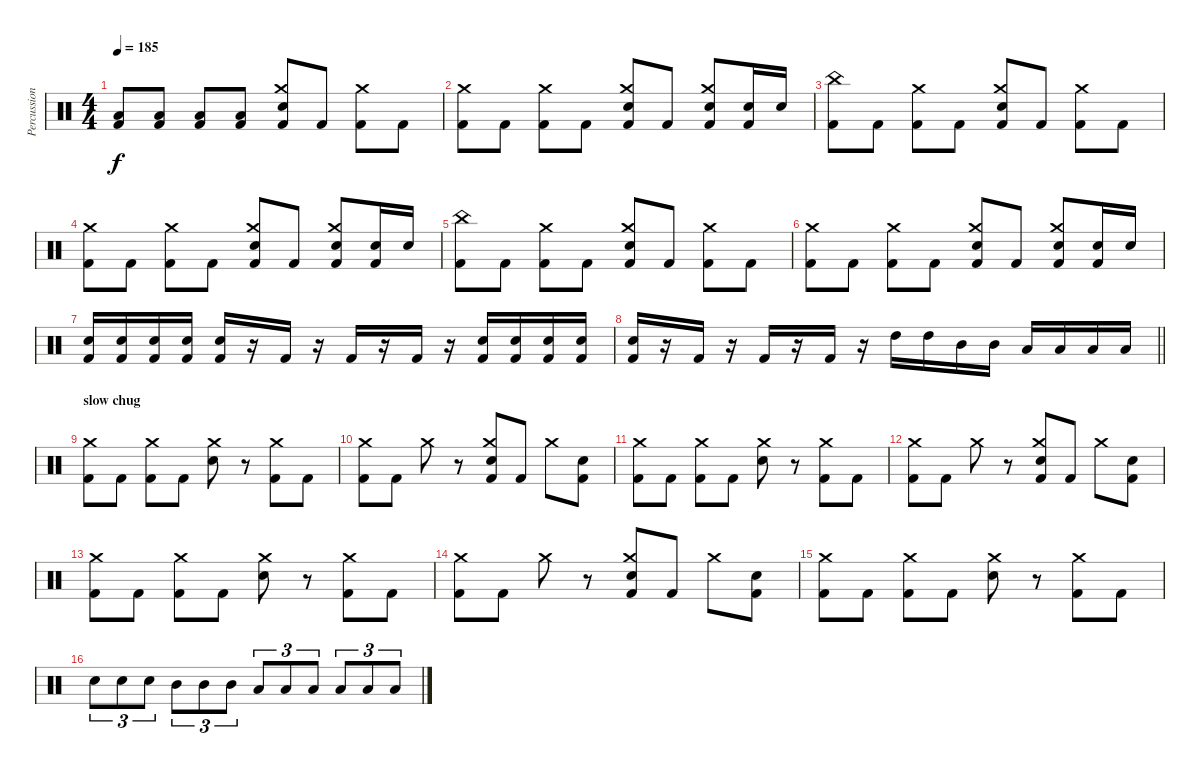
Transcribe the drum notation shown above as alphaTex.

\track ("Percussion" "Percussion") {instrument percussion}
\staff {score}
\articulation defaults
\ts (4 4)
\tempo 185
\clef neutral
\ks c
("Low Tom (hit)" "Kick (hit) 2").8{dy f} ("Low Tom (hit)" "Kick (hit) 2").8 ("Low Floor Tom (hit)" "Kick (hit) 2").8 ("Low Floor Tom (hit)" "Kick (hit) 2").8 ("Crash medium (hit)" "Electric Snare (hit)" "Kick (hit) 2").8 "Kick (hit) 2".8 ("Crash medium (hit)" "Kick (hit) 2").8 "Kick (hit) 2".8 |
("Crash medium (hit)" "Kick (hit) 2").8 "Kick (hit) 2".8 ("Crash medium (hit)" "Kick (hit) 2").8 "Kick (hit) 2".8 ("Crash medium (hit)" "Electric Snare (hit)" "Kick (hit) 2").8 "Kick (hit) 2".8 ("Crash medium (hit)" "Electric Snare (hit)" "Kick (hit) 2").8 ("Electric Snare (hit)" "Kick (hit) 2").16 "Electric Snare (hit)".16 |
("China (hit)" "Kick (hit) 2").8 "Kick (hit) 2".8 ("Crash medium (hit)" "Kick (hit) 2").8 "Kick (hit) 2".8 ("Crash medium (hit)" "Electric Snare (hit)" "Kick (hit) 2").8 "Kick (hit) 2".8 ("Crash medium (hit)" "Kick (hit) 2").8 "Kick (hit) 2".8 |
("Crash medium (hit)" "Kick (hit) 2").8 "Kick (hit) 2".8 ("Crash medium (hit)" "Kick (hit) 2").8 "Kick (hit) 2".8 ("Crash medium (hit)" "Electric Snare (hit)" "Kick (hit) 2").8 "Kick (hit) 2".8 ("Crash medium (hit)" "Electric Snare (hit)" "Kick (hit) 2").8 ("Electric Snare (hit)" "Kick (hit) 2").16 "Electric Snare (hit)".16 |
("China (hit)" "Kick (hit) 2").8 "Kick (hit) 2".8 ("Crash medium (hit)" "Kick (hit) 2").8 "Kick (hit) 2".8 ("Crash medium (hit)" "Electric Snare (hit)" "Kick (hit) 2").8 "Kick (hit) 2".8 ("Crash medium (hit)" "Kick (hit) 2").8 "Kick (hit) 2".8 |
("Crash medium (hit)" "Kick (hit) 2").8 "Kick (hit) 2".8 ("Crash medium (hit)" "Kick (hit) 2").8 "Kick (hit) 2".8 ("Crash medium (hit)" "Electric Snare (hit)" "Kick (hit) 2").8 "Kick (hit) 2".8 ("Crash medium (hit)" "Electric Snare (hit)" "Kick (hit) 2").8 ("Electric Snare (hit)" "Kick (hit) 2").16 "Electric Snare (hit)".16 |
("Electric Snare (hit)" "Kick (hit) 2").16 ("Electric Snare (hit)" "Kick (hit) 2").16 ("Electric Snare (hit)" "Kick (hit) 2").16 ("Electric Snare (hit)" "Kick (hit) 2").16 ("Electric Snare (hit)" "Kick (hit) 2").16 r.16 "Kick (hit) 2".16 r.16 "Kick (hit) 2".16 r.16 "Kick (hit) 2".16 r.16 ("Electric Snare (hit)" "Kick (hit) 2").16 ("Electric Snare (hit)" "Kick (hit) 2").16 ("Electric Snare (hit)" "Kick (hit) 2").16 ("Electric Snare (hit)" "Kick (hit) 2").16 |
\barLineRight lightlight
("Electric Snare (hit)" "Kick (hit) 2").16 r.16 "Kick (hit) 2".16 r.16 "Kick (hit) 2".16 r.16 "Kick (hit) 2".16 r.16 "High Tom (hit)".16 "High Tom (hit)".16 "Mid Tom (hit)".16 "Mid Tom (hit)".16 "Low Tom (hit)".16 "Low Tom (hit)".16 "Low Floor Tom (hit)".16 "Low Floor Tom (hit)".16 |
\section ("" "slow chug")
("Crash medium (hit)" "Kick (hit) 2").8 "Kick (hit) 2".8 ("Crash medium (hit)" "Kick (hit) 2").8 "Kick (hit) 2".8 ("Crash medium (hit)" "Electric Snare (hit)").8 r.8 ("Crash medium (hit)" "Kick (hit) 2").8 "Kick (hit) 2".8 |
("Crash medium (hit)" "Kick (hit) 2").8 "Kick (hit) 2".8 "Crash medium (hit)".8 r.8 ("Crash medium (hit)" "Electric Snare (hit)" "Kick (hit) 2").8 "Kick (hit) 2".8 "Crash medium (hit)".8 ("Electric Snare (hit)" "Kick (hit) 2").8 |
("Crash medium (hit)" "Kick (hit) 2").8 "Kick (hit) 2".8 ("Crash medium (hit)" "Kick (hit) 2").8 "Kick (hit) 2".8 ("Crash medium (hit)" "Electric Snare (hit)").8 r.8 ("Crash medium (hit)" "Kick (hit) 2").8 "Kick (hit) 2".8 |
("Crash medium (hit)" "Kick (hit) 2").8 "Kick (hit) 2".8 "Crash medium (hit)".8 r.8 ("Crash medium (hit)" "Electric Snare (hit)" "Kick (hit) 2").8 "Kick (hit) 2".8 "Crash medium (hit)".8 ("Electric Snare (hit)" "Kick (hit) 2").8 |
("Crash medium (hit)" "Kick (hit) 2").8 "Kick (hit) 2".8 ("Crash medium (hit)" "Kick (hit) 2").8 "Kick (hit) 2".8 ("Crash medium (hit)" "Electric Snare (hit)").8 r.8 ("Crash medium (hit)" "Kick (hit) 2").8 "Kick (hit) 2".8 |
("Crash medium (hit)" "Kick (hit) 2").8 "Kick (hit) 2".8 "Crash medium (hit)".8 r.8 ("Crash medium (hit)" "Electric Snare (hit)" "Kick (hit) 2").8 "Kick (hit) 2".8 "Crash medium (hit)".8 ("Electric Snare (hit)" "Kick (hit) 2").8 |
("Crash medium (hit)" "Kick (hit) 2").8 "Kick (hit) 2".8 ("Crash medium (hit)" "Kick (hit) 2").8 "Kick (hit) 2".8 ("Crash medium (hit)" "Electric Snare (hit)").8 r.8 ("Crash medium (hit)" "Kick (hit) 2").8 "Kick (hit) 2".8 |
"Electric Snare (hit)".8{tu (3 2)} "Electric Snare (hit)".8{tu (3 2)} "Electric Snare (hit)".8{tu (3 2)} "Mid Tom (hit)".8{tu (3 2)} "Mid Tom (hit)".8{tu (3 2)} "Mid Tom (hit)".8{tu (3 2)} "Low Tom (hit)".8{tu (3 2)} "Low Tom (hit)".8{tu (3 2)} "Low Tom (hit)".8{tu (3 2)} "Low Floor Tom (hit)".8{tu (3 2)} "Low Floor Tom (hit)".8{tu (3 2)} "Low Floor Tom (hit)".8{tu (3 2)}
